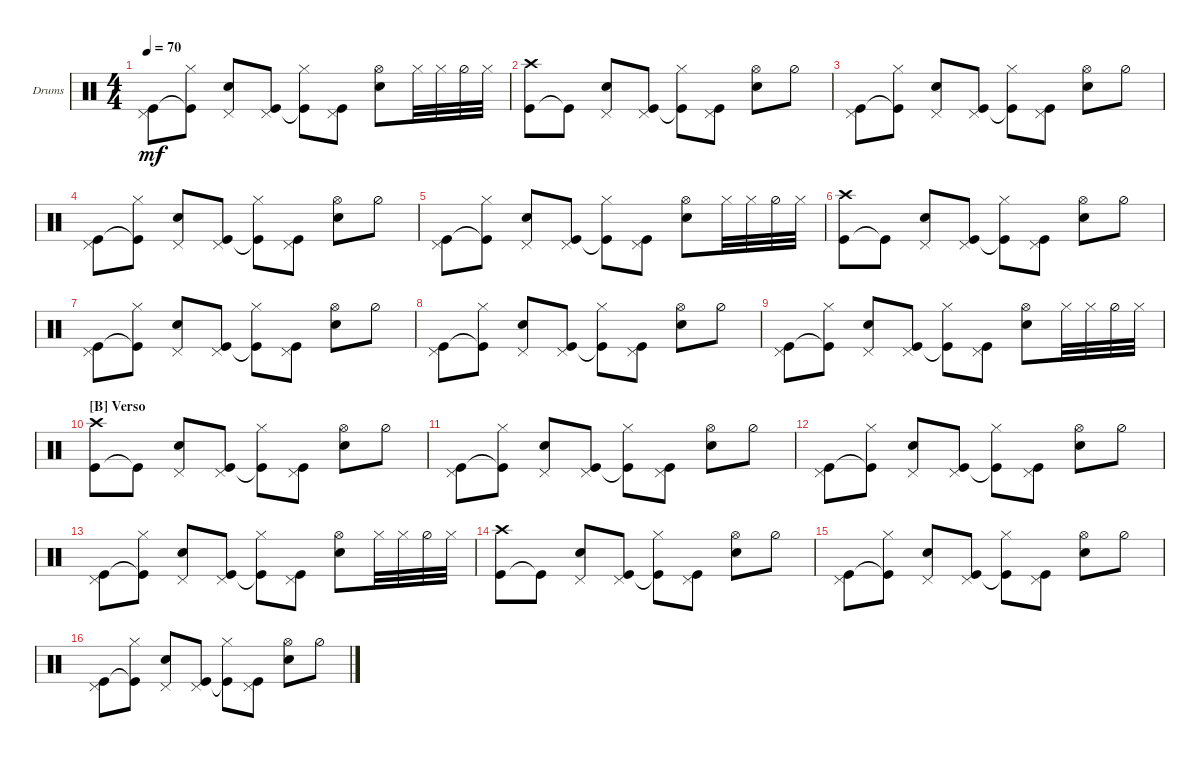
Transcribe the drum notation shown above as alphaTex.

\defaultSystemsLayout 4
\bracketExtendMode groupsimilarinstruments
\firstSystemTrackNameOrientation horizontal
\otherSystemsTrackNameOrientation horizontal
\track ("Drum" "Drums") {multiBarRest instrument percussion}
\staff {score}
\articulation defaults
\ts (4 4)
\tempo 70
\clef neutral
\ks c
("Kick (hit)" "Pedal Hi-Hat (hit)").8{dy mf} ("Kick (hit)"{t} "Hi-Hat (closed)").8 ("Snare (hit) 2" "Pedal Hi-Hat (hit)").8 ("Kick (hit)" "Pedal Hi-Hat (hit)").8 ("Kick (hit)"{t} "Hi-Hat (closed)").8 ("Kick (hit)" "Pedal Hi-Hat (hit)").8 ("Snare (hit) 2" "Hi-Hat (open)").8 "Hi-Hat (closed)".32 "Hi-Hat (closed)".32 "Hi-Hat (half)".32 "Hi-Hat (closed)".32 |
("Kick (hit)" "Crash high (hit)").8 "Kick (hit)"{t}.8 ("Snare (hit) 2" "Pedal Hi-Hat (hit)").8 ("Kick (hit)" "Pedal Hi-Hat (hit)").8 ("Kick (hit)"{t} "Hi-Hat (closed)").8 ("Kick (hit)" "Pedal Hi-Hat (hit)").8 ("Snare (hit) 2" "Hi-Hat (open)").8 "Hi-Hat (half)".8 |
("Kick (hit)" "Pedal Hi-Hat (hit)").8 ("Kick (hit)"{t} "Hi-Hat (closed)").8 ("Snare (hit) 2" "Pedal Hi-Hat (hit)").8 ("Kick (hit)" "Pedal Hi-Hat (hit)").8 ("Kick (hit)"{t} "Hi-Hat (closed)").8 ("Kick (hit)" "Pedal Hi-Hat (hit)").8 ("Snare (hit) 2" "Hi-Hat (open)").8 "Hi-Hat (half)".8 |
("Kick (hit)" "Pedal Hi-Hat (hit)").8 ("Kick (hit)"{t} "Hi-Hat (closed)").8 ("Snare (hit) 2" "Pedal Hi-Hat (hit)").8 ("Kick (hit)" "Pedal Hi-Hat (hit)").8 ("Kick (hit)"{t} "Hi-Hat (closed)").8 ("Kick (hit)" "Pedal Hi-Hat (hit)").8 ("Snare (hit) 2" "Hi-Hat (open)").8 "Hi-Hat (half)".8 |
("Kick (hit)" "Pedal Hi-Hat (hit)").8 ("Kick (hit)"{t} "Hi-Hat (closed)").8 ("Snare (hit) 2" "Pedal Hi-Hat (hit)").8 ("Kick (hit)" "Pedal Hi-Hat (hit)").8 ("Kick (hit)"{t} "Hi-Hat (closed)").8 ("Kick (hit)" "Pedal Hi-Hat (hit)").8 ("Snare (hit) 2" "Hi-Hat (open)").8 "Hi-Hat (closed)".32 "Hi-Hat (closed)".32 "Hi-Hat (half)".32 "Hi-Hat (closed)".32 |
("Kick (hit)" "Crash high (hit)").8 "Kick (hit)"{t}.8 ("Snare (hit) 2" "Pedal Hi-Hat (hit)").8 ("Kick (hit)" "Pedal Hi-Hat (hit)").8 ("Kick (hit)"{t} "Hi-Hat (closed)").8 ("Kick (hit)" "Pedal Hi-Hat (hit)").8 ("Snare (hit) 2" "Hi-Hat (open)").8 "Hi-Hat (half)".8 |
("Kick (hit)" "Pedal Hi-Hat (hit)").8 ("Kick (hit)"{t} "Hi-Hat (closed)").8 ("Snare (hit) 2" "Pedal Hi-Hat (hit)").8 ("Kick (hit)" "Pedal Hi-Hat (hit)").8 ("Kick (hit)"{t} "Hi-Hat (closed)").8 ("Kick (hit)" "Pedal Hi-Hat (hit)").8 ("Snare (hit) 2" "Hi-Hat (open)").8 "Hi-Hat (half)".8 |
("Kick (hit)" "Pedal Hi-Hat (hit)").8 ("Kick (hit)"{t} "Hi-Hat (closed)").8 ("Snare (hit) 2" "Pedal Hi-Hat (hit)").8 ("Kick (hit)" "Pedal Hi-Hat (hit)").8 ("Kick (hit)"{t} "Hi-Hat (closed)").8 ("Kick (hit)" "Pedal Hi-Hat (hit)").8 ("Snare (hit) 2" "Hi-Hat (open)").8 "Hi-Hat (half)".8 |
("Kick (hit)" "Pedal Hi-Hat (hit)").8 ("Kick (hit)"{t} "Hi-Hat (closed)").8 ("Snare (hit) 2" "Pedal Hi-Hat (hit)").8 ("Kick (hit)" "Pedal Hi-Hat (hit)").8 ("Kick (hit)"{t} "Hi-Hat (closed)").8 ("Kick (hit)" "Pedal Hi-Hat (hit)").8 ("Snare (hit) 2" "Hi-Hat (open)").8 "Hi-Hat (closed)".32 "Hi-Hat (closed)".32 "Hi-Hat (half)".32 "Hi-Hat (closed)".32 |
\section ("B" "Verso")
("Kick (hit)" "Crash high (hit)").8 "Kick (hit)"{t}.8 ("Snare (hit) 2" "Pedal Hi-Hat (hit)").8 ("Kick (hit)" "Pedal Hi-Hat (hit)").8 ("Kick (hit)"{t} "Hi-Hat (closed)").8 ("Kick (hit)" "Pedal Hi-Hat (hit)").8 ("Snare (hit) 2" "Hi-Hat (open)").8 "Hi-Hat (half)".8 |
("Kick (hit)" "Pedal Hi-Hat (hit)").8 ("Kick (hit)"{t} "Hi-Hat (closed)").8 ("Snare (hit) 2" "Pedal Hi-Hat (hit)").8 ("Kick (hit)" "Pedal Hi-Hat (hit)").8 ("Kick (hit)"{t} "Hi-Hat (closed)").8 ("Kick (hit)" "Pedal Hi-Hat (hit)").8 ("Snare (hit) 2" "Hi-Hat (open)").8 "Hi-Hat (half)".8 |
("Kick (hit)" "Pedal Hi-Hat (hit)").8 ("Kick (hit)"{t} "Hi-Hat (closed)").8 ("Snare (hit) 2" "Pedal Hi-Hat (hit)").8 ("Kick (hit)" "Pedal Hi-Hat (hit)").8 ("Kick (hit)"{t} "Hi-Hat (closed)").8 ("Kick (hit)" "Pedal Hi-Hat (hit)").8 ("Snare (hit) 2" "Hi-Hat (open)").8 "Hi-Hat (half)".8 |
("Kick (hit)" "Pedal Hi-Hat (hit)").8 ("Kick (hit)"{t} "Hi-Hat (closed)").8 ("Snare (hit) 2" "Pedal Hi-Hat (hit)").8 ("Kick (hit)" "Pedal Hi-Hat (hit)").8 ("Kick (hit)"{t} "Hi-Hat (closed)").8 ("Kick (hit)" "Pedal Hi-Hat (hit)").8 ("Snare (hit) 2" "Hi-Hat (open)").8 "Hi-Hat (closed)".32 "Hi-Hat (closed)".32 "Hi-Hat (half)".32 "Hi-Hat (closed)".32 |
("Kick (hit)" "Crash high (hit)").8 "Kick (hit)"{t}.8 ("Snare (hit) 2" "Pedal Hi-Hat (hit)").8 ("Kick (hit)" "Pedal Hi-Hat (hit)").8 ("Kick (hit)"{t} "Hi-Hat (closed)").8 ("Kick (hit)" "Pedal Hi-Hat (hit)").8 ("Snare (hit) 2" "Hi-Hat (open)").8 "Hi-Hat (half)".8 |
("Kick (hit)" "Pedal Hi-Hat (hit)").8 ("Kick (hit)"{t} "Hi-Hat (closed)").8 ("Snare (hit) 2" "Pedal Hi-Hat (hit)").8 ("Kick (hit)" "Pedal Hi-Hat (hit)").8 ("Kick (hit)"{t} "Hi-Hat (closed)").8 ("Kick (hit)" "Pedal Hi-Hat (hit)").8 ("Snare (hit) 2" "Hi-Hat (open)").8 "Hi-Hat (half)".8 |
("Kick (hit)" "Pedal Hi-Hat (hit)").8 ("Kick (hit)"{t} "Hi-Hat (closed)").8 ("Snare (hit) 2" "Pedal Hi-Hat (hit)").8 ("Kick (hit)" "Pedal Hi-Hat (hit)").8 ("Kick (hit)"{t} "Hi-Hat (closed)").8 ("Kick (hit)" "Pedal Hi-Hat (hit)").8 ("Snare (hit) 2" "Hi-Hat (open)").8 "Hi-Hat (half)".8
